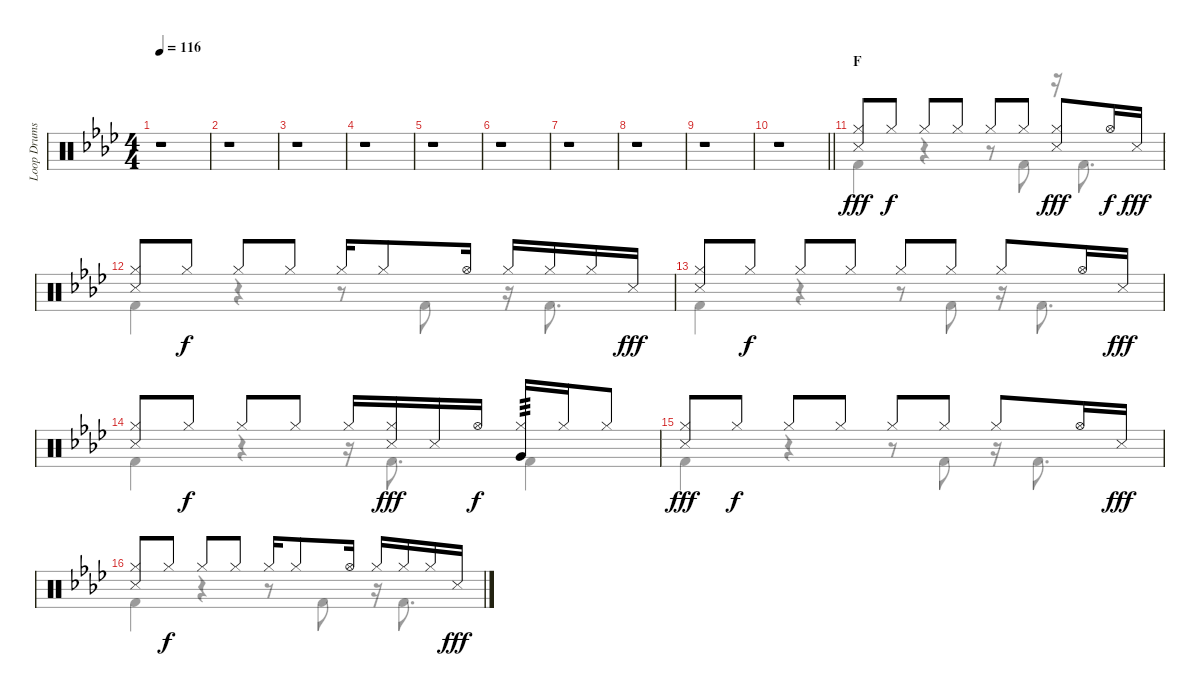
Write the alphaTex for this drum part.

\track ("Loop Drums I" "Loop Drums") {instrument percussion}
\staff {score}
\articulation defaults
\voice
\ts (4 4)
\tempo 116
\clef neutral
\ks ab
r.1{dy f} |
r.1 |
r.1 |
r.1 |
r.1 |
r.1 |
r.1 |
r.1 |
r.1 |
\barLineRight lightlight
r.1 |
\section ("" "F")
("Hi-Hat (closed)" "Snare (side stick) 3").8{dy fff} "Hi-Hat (closed)".8{dy f} "Hi-Hat (closed)".8 "Hi-Hat (closed)".8 "Hi-Hat (closed)".8 "Hi-Hat (closed)".8 ("Hi-Hat (closed)" "Snare (side stick) 3").8{dy fff} "Hi-Hat (open)".16{dy f} "Snare (side stick) 3".16{dy fff} |
("Hi-Hat (closed)" "Snare (side stick) 3").8 "Hi-Hat (closed)".8{dy f} "Hi-Hat (closed)".8 "Hi-Hat (closed)".8 "Hi-Hat (closed)".16 "Hi-Hat (closed)".8 "Hi-Hat (open)".16 "Hi-Hat (closed)".16 "Hi-Hat (closed)".16 "Hi-Hat (closed)".16 "Snare (side stick) 3".16{dy fff} |
("Hi-Hat (closed)" "Snare (side stick) 3").8 "Hi-Hat (closed)".8{dy f} "Hi-Hat (closed)".8 "Hi-Hat (closed)".8 "Hi-Hat (closed)".8 "Hi-Hat (closed)".8 "Hi-Hat (closed)".8 "Hi-Hat (open)".16 "Snare (side stick) 3".16{dy fff} |
("Hi-Hat (closed)" "Snare (side stick) 3").8 "Hi-Hat (closed)".8{dy f} "Hi-Hat (closed)".8 "Hi-Hat (closed)".8 "Hi-Hat (closed)".16 ("Hi-Hat (closed)" "Snare (side stick) 3").16{dy fff} "Snare (side stick) 3".16 "Hi-Hat (open)".16{dy f} ("Hi-Hat (closed)" "Very Low Tom (hit)").16{tp 3} "Hi-Hat (closed)".16 "Hi-Hat (closed)".8 |
("Hi-Hat (closed)" "Snare (side stick) 3").8{dy fff} "Hi-Hat (closed)".8{dy f} "Hi-Hat (closed)".8 "Hi-Hat (closed)".8 "Hi-Hat (closed)".8 "Hi-Hat (closed)".8 "Hi-Hat (closed)".8 "Hi-Hat (open)".16 "Snare (side stick) 3".16{dy fff} |
("Hi-Hat (closed)" "Snare (side stick) 3").8 "Hi-Hat (closed)".8{dy f} "Hi-Hat (closed)".8 "Hi-Hat (closed)".8 "Hi-Hat (closed)".16 "Hi-Hat (closed)".8 "Hi-Hat (open)".16 "Hi-Hat (closed)".16 "Hi-Hat (closed)".16 "Hi-Hat (closed)".16 "Snare (side stick) 3".16{dy fff}
\voice
\clef neutral
\ottava regular
\simile none
\ks ab
r.1{dy fff} |
r.1 |
r.1 |
r.1 |
r.1 |
r.1 |
r.1 |
r.1 |
r.1 |
\barLineRight lightlight
r.1 |
"Kick (hit) 2".4 r.4 r.8 "Kick (hit) 2".8 r.16 "Kick (hit) 2".8{d} |
"Kick (hit) 2".4 r.4 r.8 "Kick (hit) 2".8 r.16 "Kick (hit) 2".8{d} |
"Kick (hit) 2".4 r.4 r.8 "Kick (hit) 2".8 r.16 "Kick (hit) 2".8{d} |
"Kick (hit) 2".4 r.4 r.16 "Kick (hit) 2".8{d} "Kick (hit) 2".4 |
"Kick (hit) 2".4 r.4 r.8 "Kick (hit) 2".8 r.16 "Kick (hit) 2".8{d} |
"Kick (hit) 2".4 r.4 r.8 "Kick (hit) 2".8 r.16 "Kick (hit) 2".8{d}
